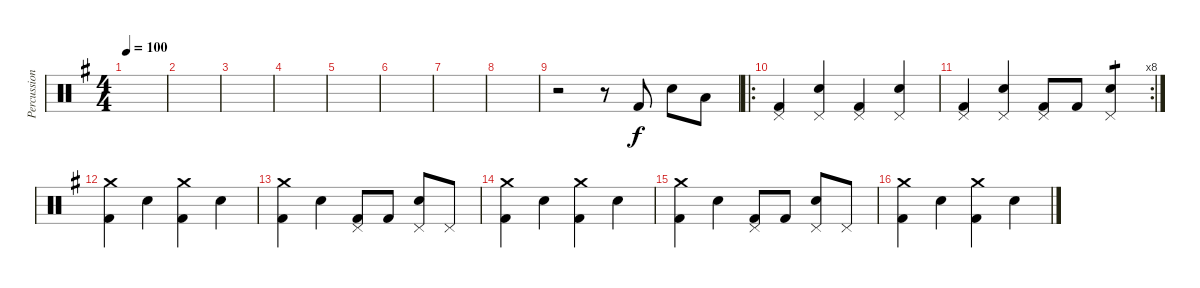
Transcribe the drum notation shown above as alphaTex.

\track ("Percussion" "Percussion") {instrument percussion}
\staff {score}
\articulation defaults
\ts (4 4)
\tempo 100
\clef neutral
\ks g
|
|
|
|
|
|
|
|
r.2 r.8 "Kick (hit) 2".8 "Snare (hit) 2".8 "Low Floor Tom (hit)".8 |
\ro
("Kick (hit) 2" "Pedal Hi-Hat (hit)").4 ("Snare (hit) 2" "Pedal Hi-Hat (hit)").4 ("Kick (hit) 2" "Pedal Hi-Hat (hit)").4 ("Snare (hit) 2" "Pedal Hi-Hat (hit)").4 |
\rc 8
("Kick (hit) 2" "Pedal Hi-Hat (hit)").4 ("Snare (hit) 2" "Pedal Hi-Hat (hit)").4 ("Kick (hit) 2" "Pedal Hi-Hat (hit)").8 "Kick (hit) 2".8 ("Snare (hit) 2" "Pedal Hi-Hat (hit)").4{tp 1} |
("Kick (hit) 2" "Crash medium (hit)").4 "Snare (hit) 2".4 ("Kick (hit) 2" "Crash medium (hit)").4 "Snare (hit) 2".4 |
("Kick (hit) 2" "Crash medium (hit)").4 "Snare (hit) 2".4 ("Kick (hit) 2" "Pedal Hi-Hat (hit)").8 "Kick (hit) 2".8 ("Snare (hit) 2" "Pedal Hi-Hat (hit)").8 "Pedal Hi-Hat (hit)".8 |
("Kick (hit) 2" "Crash medium (hit)").4 "Snare (hit) 2".4 ("Kick (hit) 2" "Crash medium (hit)").4 "Snare (hit) 2".4 |
("Kick (hit) 2" "Crash medium (hit)").4 "Snare (hit) 2".4 ("Kick (hit) 2" "Pedal Hi-Hat (hit)").8 "Kick (hit) 2".8 ("Snare (hit) 2" "Pedal Hi-Hat (hit)").8 "Pedal Hi-Hat (hit)".8 |
("Kick (hit) 2" "Crash medium (hit)").4 "Snare (hit) 2".4 ("Kick (hit) 2" "Crash medium (hit)").4 "Snare (hit) 2".4
